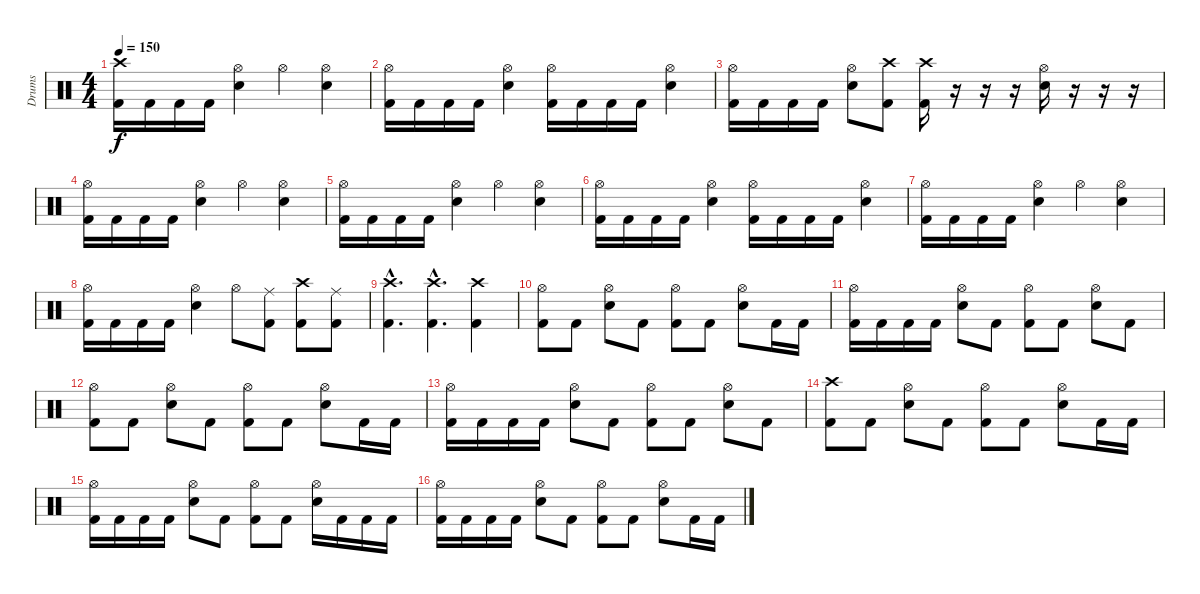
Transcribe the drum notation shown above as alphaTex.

\track ("Drums" "Drums") {instrument percussion}
\staff {score}
\articulation defaults
\ts (4 4)
\tempo 150
\clef neutral
\ks c
("Crash high (hit)" "Kick (hit) 2").16{dy f} "Kick (hit) 2".16 "Kick (hit) 2".16 "Kick (hit) 2".16 ("Hi-Hat (open)" "Electric Snare (hit)").4 "Hi-Hat (open)".4 ("Hi-Hat (open)" "Electric Snare (hit)").4 |
("Hi-Hat (open)" "Kick (hit) 2").16 "Kick (hit) 2".16 "Kick (hit) 2".16 "Kick (hit) 2".16 ("Hi-Hat (open)" "Electric Snare (hit)").4 ("Hi-Hat (open)" "Kick (hit) 2").16 "Kick (hit) 2".16 "Kick (hit) 2".16 "Kick (hit) 2".16 ("Hi-Hat (open)" "Electric Snare (hit)").4 |
("Hi-Hat (open)" "Kick (hit) 2").16 "Kick (hit) 2".16 "Kick (hit) 2".16 "Kick (hit) 2".16 ("Hi-Hat (open)" "Electric Snare (hit)").8 ("Crash high (hit)" "Kick (hit) 2").8 ("Crash high (hit)" "Kick (hit) 2").16 r.16 r.16 r.16 ("Hi-Hat (open)" "Electric Snare (hit)").16 r.16 r.16 r.16 |
("Hi-Hat (open)" "Kick (hit) 2").16 "Kick (hit) 2".16 "Kick (hit) 2".16 "Kick (hit) 2".16 ("Hi-Hat (open)" "Electric Snare (hit)").4 "Hi-Hat (open)".4 ("Hi-Hat (open)" "Electric Snare (hit)").4 |
("Hi-Hat (open)" "Kick (hit) 2").16 "Kick (hit) 2".16 "Kick (hit) 2".16 "Kick (hit) 2".16 ("Hi-Hat (open)" "Electric Snare (hit)").4 "Hi-Hat (open)".4 ("Hi-Hat (open)" "Electric Snare (hit)").4 |
("Hi-Hat (open)" "Kick (hit) 2").16 "Kick (hit) 2".16 "Kick (hit) 2".16 "Kick (hit) 2".16 ("Hi-Hat (open)" "Electric Snare (hit)").4 ("Hi-Hat (open)" "Kick (hit) 2").16 "Kick (hit) 2".16 "Kick (hit) 2".16 "Kick (hit) 2".16 ("Hi-Hat (open)" "Electric Snare (hit)").4 |
("Hi-Hat (open)" "Kick (hit) 2").16 "Kick (hit) 2".16 "Kick (hit) 2".16 "Kick (hit) 2".16 ("Hi-Hat (open)" "Electric Snare (hit)").4 "Hi-Hat (open)".4 ("Hi-Hat (open)" "Electric Snare (hit)").4 |
("Hi-Hat (open)" "Kick (hit) 2").16 "Kick (hit) 2".16 "Kick (hit) 2".16 "Kick (hit) 2".16 ("Hi-Hat (open)" "Electric Snare (hit)").4 "Hi-Hat (open)".8 ("Ride (middle)" "Kick (hit) 2").8 ("Crash high (hit)" "Kick (hit) 2").8 ("Ride (middle)" "Kick (hit) 2").8 |
("Crash high (hit)"{hac} "Kick (hit) 2"{hac}).4{d} ("Crash high (hit)"{hac} "Kick (hit) 2"{hac}).4{d} ("Crash high (hit)" "Kick (hit) 2").4 |
("Hi-Hat (open)" "Kick (hit) 2").8 "Kick (hit) 2".8 ("Hi-Hat (open)" "Electric Snare (hit)").8 "Kick (hit) 2".8 ("Hi-Hat (open)" "Kick (hit) 2").8 "Kick (hit) 2".8 ("Hi-Hat (open)" "Electric Snare (hit)").8 "Kick (hit) 2".16 "Kick (hit) 2".16 |
("Hi-Hat (open)" "Kick (hit) 2").16 "Kick (hit) 2".16 "Kick (hit) 2".16 "Kick (hit) 2".16 ("Hi-Hat (open)" "Electric Snare (hit)").8 "Kick (hit) 2".8 ("Hi-Hat (open)" "Kick (hit) 2").8 "Kick (hit) 2".8 ("Hi-Hat (open)" "Electric Snare (hit)").8 "Kick (hit) 2".8 |
("Hi-Hat (open)" "Kick (hit) 2").8 "Kick (hit) 2".8 ("Hi-Hat (open)" "Electric Snare (hit)").8 "Kick (hit) 2".8 ("Hi-Hat (open)" "Kick (hit) 2").8 "Kick (hit) 2".8 ("Hi-Hat (open)" "Electric Snare (hit)").8 "Kick (hit) 2".16 "Kick (hit) 2".16 |
("Hi-Hat (open)" "Kick (hit) 2").16 "Kick (hit) 2".16 "Kick (hit) 2".16 "Kick (hit) 2".16 ("Hi-Hat (open)" "Electric Snare (hit)").8 "Kick (hit) 2".8 ("Hi-Hat (open)" "Kick (hit) 2").8 "Kick (hit) 2".8 ("Hi-Hat (open)" "Electric Snare (hit)").8 "Kick (hit) 2".8 |
("Crash high (hit)" "Kick (hit) 2").8 "Kick (hit) 2".8 ("Hi-Hat (open)" "Electric Snare (hit)").8 "Kick (hit) 2".8 ("Hi-Hat (open)" "Kick (hit) 2").8 "Kick (hit) 2".8 ("Hi-Hat (open)" "Electric Snare (hit)").8 "Kick (hit) 2".16 "Kick (hit) 2".16 |
("Hi-Hat (open)" "Kick (hit) 2").16 "Kick (hit) 2".16 "Kick (hit) 2".16 "Kick (hit) 2".16 ("Hi-Hat (open)" "Electric Snare (hit)").8 "Kick (hit) 2".8 ("Hi-Hat (open)" "Kick (hit) 2").8 "Kick (hit) 2".8 ("Hi-Hat (open)" "Electric Snare (hit)").16 "Kick (hit) 2".16 "Kick (hit) 2".16 "Kick (hit) 2".16 |
("Hi-Hat (open)" "Kick (hit) 2").16 "Kick (hit) 2".16 "Kick (hit) 2".16 "Kick (hit) 2".16 ("Hi-Hat (open)" "Electric Snare (hit)").8 "Kick (hit) 2".8 ("Hi-Hat (open)" "Kick (hit) 2").8 "Kick (hit) 2".8 ("Hi-Hat (open)" "Electric Snare (hit)").8 "Kick (hit) 2".16 "Kick (hit) 2".16
